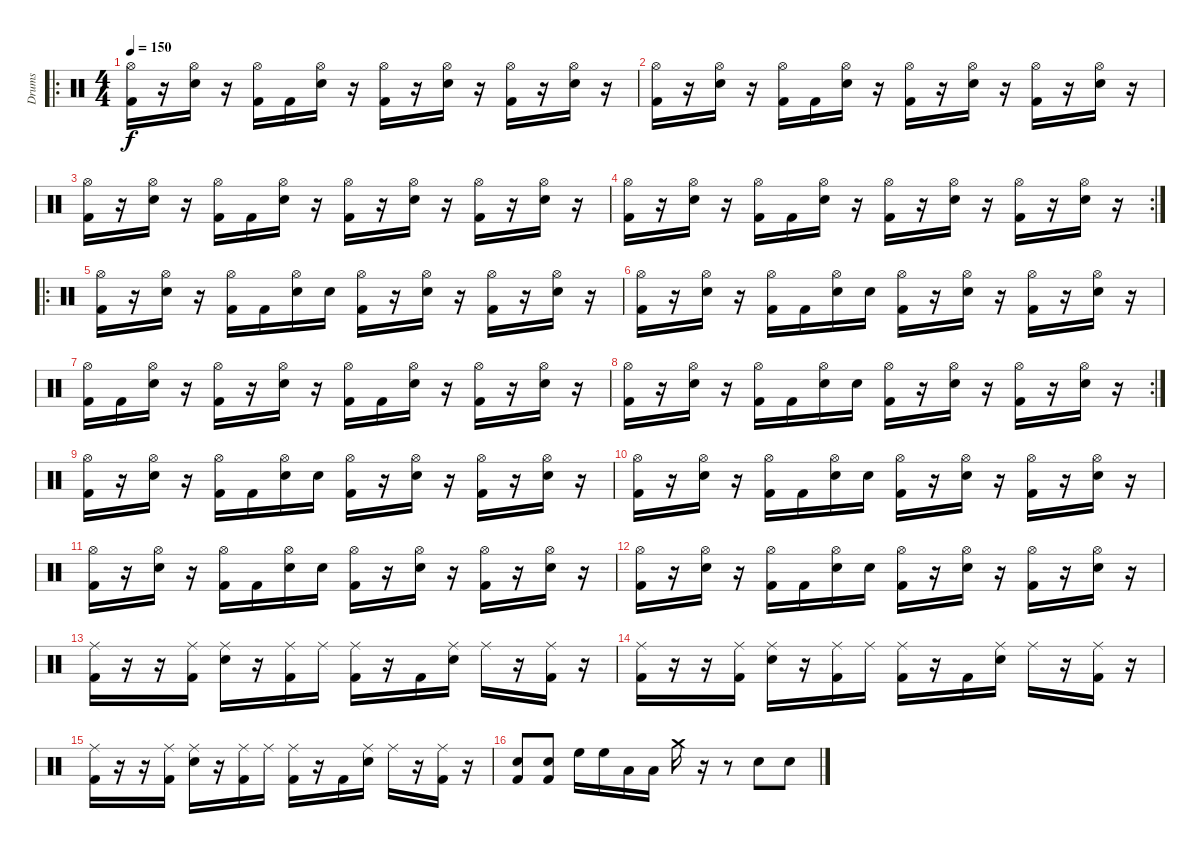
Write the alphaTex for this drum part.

\track ("Drums" "Drums") {instrument percussion}
\staff {score}
\articulation defaults
\ro
\ts (4 4)
\tempo 150
\clef neutral
\ks c
("Hi-Hat (open)" "Kick (hit) 2").16{dy f} r.16 ("Hi-Hat (open)" "Electric Snare (hit)").16 r.16 ("Hi-Hat (open)" "Kick (hit) 2").16 "Kick (hit) 2".16 ("Hi-Hat (open)" "Electric Snare (hit)").16 r.16 ("Hi-Hat (open)" "Kick (hit) 2").16 r.16 ("Hi-Hat (open)" "Electric Snare (hit)").16 r.16 ("Hi-Hat (open)" "Kick (hit) 2").16 r.16 ("Hi-Hat (open)" "Electric Snare (hit)").16 r.16 |
("Hi-Hat (open)" "Kick (hit) 2").16 r.16 ("Hi-Hat (open)" "Electric Snare (hit)").16 r.16 ("Hi-Hat (open)" "Kick (hit) 2").16 "Kick (hit) 2".16 ("Hi-Hat (open)" "Electric Snare (hit)").16 r.16 ("Hi-Hat (open)" "Kick (hit) 2").16 r.16 ("Hi-Hat (open)" "Electric Snare (hit)").16 r.16 ("Hi-Hat (open)" "Kick (hit) 2").16 r.16 ("Hi-Hat (open)" "Electric Snare (hit)").16 r.16 |
("Hi-Hat (open)" "Kick (hit) 2").16 r.16 ("Hi-Hat (open)" "Electric Snare (hit)").16 r.16 ("Hi-Hat (open)" "Kick (hit) 2").16 "Kick (hit) 2".16 ("Hi-Hat (open)" "Electric Snare (hit)").16 r.16 ("Hi-Hat (open)" "Kick (hit) 2").16 r.16 ("Hi-Hat (open)" "Electric Snare (hit)").16 r.16 ("Hi-Hat (open)" "Kick (hit) 2").16 r.16 ("Hi-Hat (open)" "Electric Snare (hit)").16 r.16 |
\rc 2
("Hi-Hat (open)" "Kick (hit) 2").16 r.16 ("Hi-Hat (open)" "Electric Snare (hit)").16 r.16 ("Hi-Hat (open)" "Kick (hit) 2").16 "Kick (hit) 2".16 ("Hi-Hat (open)" "Electric Snare (hit)").16 r.16 ("Hi-Hat (open)" "Kick (hit) 2").16 r.16 ("Hi-Hat (open)" "Electric Snare (hit)").16 r.16 ("Hi-Hat (open)" "Kick (hit) 2").16 r.16 ("Hi-Hat (open)" "Electric Snare (hit)").16 r.16 |
\ro
("Hi-Hat (open)" "Kick (hit) 2").16 r.16 ("Hi-Hat (open)" "Electric Snare (hit)").16 r.16 ("Hi-Hat (open)" "Kick (hit) 2").16 "Kick (hit) 2".16 ("Hi-Hat (open)" "Electric Snare (hit)").16 "Electric Snare (hit)".16 ("Hi-Hat (open)" "Kick (hit) 2").16 r.16 ("Hi-Hat (open)" "Electric Snare (hit)").16 r.16 ("Hi-Hat (open)" "Kick (hit) 2").16 r.16 ("Hi-Hat (open)" "Electric Snare (hit)").16 r.16 |
("Hi-Hat (open)" "Kick (hit) 2").16 r.16 ("Hi-Hat (open)" "Electric Snare (hit)").16 r.16 ("Hi-Hat (open)" "Kick (hit) 2").16 "Kick (hit) 2".16 ("Hi-Hat (open)" "Electric Snare (hit)").16 "Electric Snare (hit)".16 ("Hi-Hat (open)" "Kick (hit) 2").16 r.16 ("Hi-Hat (open)" "Electric Snare (hit)").16 r.16 ("Hi-Hat (open)" "Kick (hit) 2").16 r.16 ("Hi-Hat (open)" "Electric Snare (hit)").16 r.16 |
("Hi-Hat (open)" "Kick (hit) 2").16 "Kick (hit) 2".16 ("Hi-Hat (open)" "Electric Snare (hit)").16 r.16 ("Hi-Hat (open)" "Kick (hit) 2").16 r.16 ("Hi-Hat (open)" "Electric Snare (hit)").16 r.16 ("Hi-Hat (open)" "Kick (hit) 2").16 "Kick (hit) 2".16 ("Hi-Hat (open)" "Electric Snare (hit)").16 r.16 ("Hi-Hat (open)" "Kick (hit) 2").16 r.16 ("Hi-Hat (open)" "Electric Snare (hit)").16 r.16 |
\rc 2
("Hi-Hat (open)" "Kick (hit) 2").16 r.16 ("Hi-Hat (open)" "Electric Snare (hit)").16 r.16 ("Hi-Hat (open)" "Kick (hit) 2").16 "Kick (hit) 2".16 ("Hi-Hat (open)" "Electric Snare (hit)").16 "Electric Snare (hit)".16 ("Hi-Hat (open)" "Kick (hit) 2").16 r.16 ("Hi-Hat (open)" "Electric Snare (hit)").16 r.16 ("Hi-Hat (open)" "Kick (hit) 2").16 r.16 ("Hi-Hat (open)" "Electric Snare (hit)").16 r.16 |
("Hi-Hat (open)" "Kick (hit) 2").16 r.16 ("Hi-Hat (open)" "Electric Snare (hit)").16 r.16 ("Hi-Hat (open)" "Kick (hit) 2").16 "Kick (hit) 2".16 ("Hi-Hat (open)" "Electric Snare (hit)").16 "Electric Snare (hit)".16 ("Hi-Hat (open)" "Kick (hit) 2").16 r.16 ("Hi-Hat (open)" "Electric Snare (hit)").16 r.16 ("Hi-Hat (open)" "Kick (hit) 2").16 r.16 ("Hi-Hat (open)" "Electric Snare (hit)").16 r.16 |
("Hi-Hat (open)" "Kick (hit) 2").16 r.16 ("Hi-Hat (open)" "Electric Snare (hit)").16 r.16 ("Hi-Hat (open)" "Kick (hit) 2").16 "Kick (hit) 2".16 ("Hi-Hat (open)" "Electric Snare (hit)").16 "Electric Snare (hit)".16 ("Hi-Hat (open)" "Kick (hit) 2").16 r.16 ("Hi-Hat (open)" "Electric Snare (hit)").16 r.16 ("Hi-Hat (open)" "Kick (hit) 2").16 r.16 ("Hi-Hat (open)" "Electric Snare (hit)").16 r.16 |
("Hi-Hat (open)" "Kick (hit) 2").16 r.16 ("Hi-Hat (open)" "Electric Snare (hit)").16 r.16 ("Hi-Hat (open)" "Kick (hit) 2").16 "Kick (hit) 2".16 ("Hi-Hat (open)" "Electric Snare (hit)").16 "Electric Snare (hit)".16 ("Hi-Hat (open)" "Kick (hit) 2").16 r.16 ("Hi-Hat (open)" "Electric Snare (hit)").16 r.16 ("Hi-Hat (open)" "Kick (hit) 2").16 r.16 ("Hi-Hat (open)" "Electric Snare (hit)").16 r.16 |
("Hi-Hat (open)" "Kick (hit) 2").16 r.16 ("Hi-Hat (open)" "Electric Snare (hit)").16 r.16 ("Hi-Hat (open)" "Kick (hit) 2").16 "Kick (hit) 2".16 ("Hi-Hat (open)" "Electric Snare (hit)").16 "Electric Snare (hit)".16 ("Hi-Hat (open)" "Kick (hit) 2").16 r.16 ("Hi-Hat (open)" "Electric Snare (hit)").16 r.16 ("Hi-Hat (open)" "Kick (hit) 2").16 r.16 ("Hi-Hat (open)" "Electric Snare (hit)").16 r.16 |
("Ride (middle)" "Kick (hit) 2").16 r.16 r.16 ("Ride (middle)" "Kick (hit) 2").16 ("Ride (middle)" "Electric Snare (hit)").16 r.16 ("Ride (middle)" "Kick (hit) 2").16 "Ride (middle)".16 ("Ride (middle)" "Kick (hit) 2").16 r.16 "Kick (hit) 2".16 ("Ride (middle)" "Electric Snare (hit)").16 "Ride (middle)".16 r.16 ("Ride (middle)" "Kick (hit) 2").16 r.16 |
("Ride (middle)" "Kick (hit) 2").16 r.16 r.16 ("Ride (middle)" "Kick (hit) 2").16 ("Ride (middle)" "Electric Snare (hit)").16 r.16 ("Ride (middle)" "Kick (hit) 2").16 "Ride (middle)".16 ("Ride (middle)" "Kick (hit) 2").16 r.16 "Kick (hit) 2".16 ("Ride (middle)" "Electric Snare (hit)").16 "Ride (middle)".16 r.16 ("Ride (middle)" "Kick (hit) 2").16 r.16 |
("Ride (middle)" "Kick (hit) 2").16 r.16 r.16 ("Ride (middle)" "Kick (hit) 2").16 ("Ride (middle)" "Electric Snare (hit)").16 r.16 ("Ride (middle)" "Kick (hit) 2").16 "Ride (middle)".16 ("Ride (middle)" "Kick (hit) 2").16 r.16 "Kick (hit) 2".16 ("Ride (middle)" "Electric Snare (hit)").16 "Ride (middle)".16 r.16 ("Ride (middle)" "Kick (hit) 2").16 r.16 |
("Electric Snare (hit)" "Kick (hit) 2").8 ("Electric Snare (hit)" "Kick (hit) 2").8 "High Floor Tom (hit)".16 "High Floor Tom (hit)".16 "Low Floor Tom (hit)".16 "Low Floor Tom (hit)".16 "Crash medium (hit)".16 r.16 r.8 "Electric Snare (hit)".8 "Electric Snare (hit)".8
